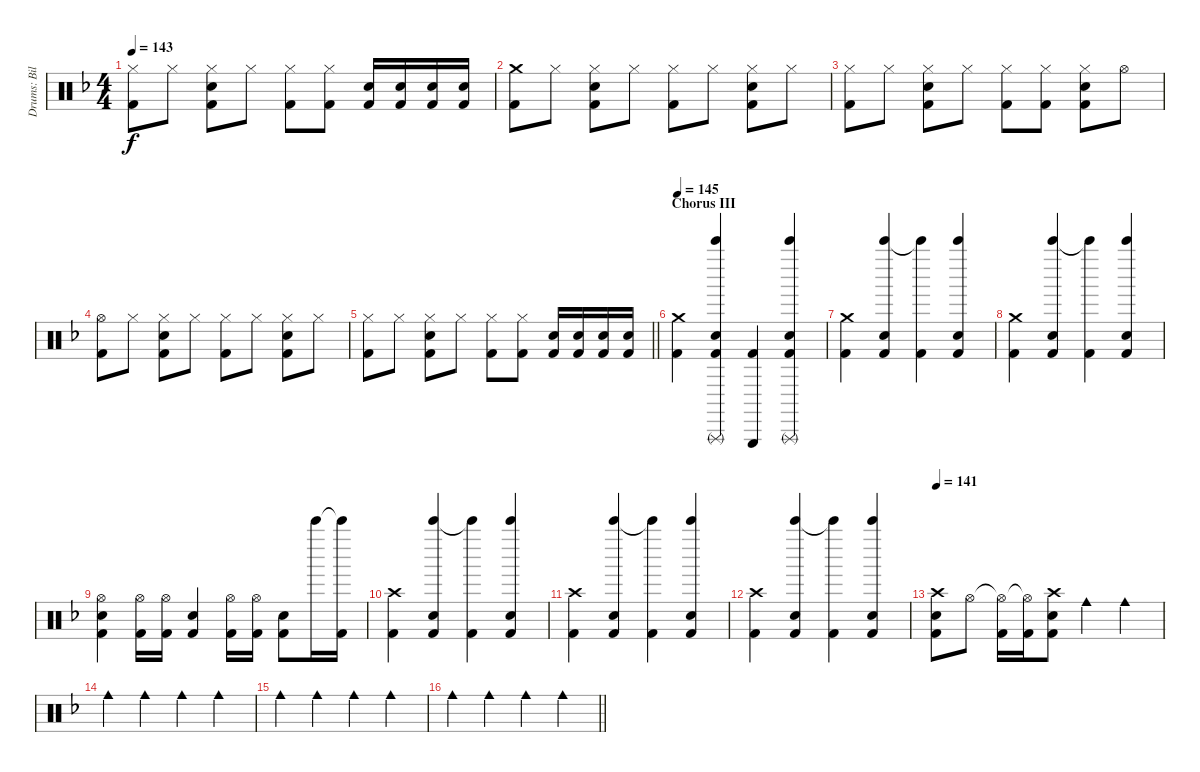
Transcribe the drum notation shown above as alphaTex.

\track ("Drums: Bill" "Drums: Bil") {instrument percussion}
\staff {score}
\articulation defaults
\ts (4 4)
\tempo 143
\clef neutral
\ks f
("Hi-Hat (closed)" "Kick (hit) 2").8{dy f} "Hi-Hat (closed)".8 ("Hi-Hat (closed)" "Snare (hit) 2" "Kick (hit) 2").8 "Hi-Hat (closed)".8 ("Hi-Hat (closed)" "Kick (hit) 2").8 ("Hi-Hat (closed)" "Kick (hit) 2").8 ("Snare (hit) 2" "Kick (hit) 2").16 ("Snare (hit) 2" "Kick (hit) 2").16 ("Snare (hit) 2" "Kick (hit) 2").16 ("Snare (hit) 2" "Kick (hit) 2").16 |
("Crash medium (hit)" "Kick (hit) 2").8 "Hi-Hat (closed)".8 ("Hi-Hat (closed)" "Snare (hit) 2" "Kick (hit) 2").8 "Hi-Hat (closed)".8 ("Hi-Hat (closed)" "Kick (hit) 2").8 "Hi-Hat (closed)".8 ("Hi-Hat (closed)" "Snare (hit) 2" "Kick (hit) 2").8 "Hi-Hat (closed)".8 |
("Hi-Hat (closed)" "Kick (hit) 2").8 "Hi-Hat (closed)".8 ("Hi-Hat (closed)" "Snare (hit) 2" "Kick (hit) 2").8 "Hi-Hat (closed)".8 ("Hi-Hat (closed)" "Kick (hit) 2").8 ("Hi-Hat (closed)" "Kick (hit) 2").8 ("Hi-Hat (closed)" "Snare (hit) 2" "Kick (hit) 2").8 "Hi-Hat (open)".8 |
("Hi-Hat (open)" "Kick (hit) 2").8 "Hi-Hat (closed)".8 ("Hi-Hat (closed)" "Snare (hit) 2" "Kick (hit) 2").8 "Hi-Hat (closed)".8 ("Hi-Hat (closed)" "Kick (hit) 2").8 "Hi-Hat (closed)".8 ("Hi-Hat (closed)" "Snare (hit) 2" "Kick (hit) 2").8 "Hi-Hat (closed)".8 |
\barLineRight lightlight
("Hi-Hat (closed)" "Kick (hit) 2").8 "Hi-Hat (closed)".8 ("Hi-Hat (closed)" "Snare (hit) 2" "Kick (hit) 2").8 "Hi-Hat (closed)".8 ("Hi-Hat (closed)" "Kick (hit) 2").8 ("Hi-Hat (closed)" "Kick (hit) 2").8 ("Snare (hit) 2" "Kick (hit) 2").16 ("Snare (hit) 2" "Kick (hit) 2").16 ("Snare (hit) 2" "Kick (hit) 2").16 ("Snare (hit) 2" "Kick (hit) 2").16 |
\section ("" "Chorus III")
\tempo 145
("Crash medium (hit)" "Kick (hit) 2").4 ("Triangle (rnute)" "Bell Tree (hit)" "Electric Snare (hit)" "Kick (hit) 2").4 ("Triangle (hit)" "Kick (hit) 2").4 ("Triangle (rnute)" "Bell Tree (hit)" "Electric Snare (hit)" "Kick (hit) 2").4 |
("Crash medium (hit)" "Kick (hit) 2").4 ("Bell Tree (hit)" "Electric Snare (hit)" "Kick (hit) 2").4 ("Bell Tree (hit)"{t} "Kick (hit) 2").4 ("Bell Tree (hit)" "Electric Snare (hit)" "Kick (hit) 2").4 |
("Crash medium (hit)" "Kick (hit) 2").4 ("Bell Tree (hit)" "Electric Snare (hit)" "Kick (hit) 2").4 ("Bell Tree (hit)"{t} "Kick (hit) 2").4 ("Bell Tree (hit)" "Electric Snare (hit)" "Kick (hit) 2").4 |
("Hi-Hat (open)" "Snare (hit) 2" "Kick (hit) 2").4 ("Hi-Hat (open)" "Kick (hit) 2").16 ("Hi-Hat (open)" "Kick (hit) 2").16 ("Snare (hit) 2" "Kick (hit) 2").4 ("Hi-Hat (open)" "Kick (hit) 2").16 ("Hi-Hat (open)" "Kick (hit) 2").16 ("Snare (hit) 2" "Kick (hit) 2").8 "Bell Tree (hit)".16 ("Bell Tree (hit)"{t} "Kick (hit) 2").16 |
("Crash high (hit)" "Kick (hit) 2").4 ("Bell Tree (hit)" "Electric Snare (hit)" "Kick (hit) 2").4 ("Bell Tree (hit)"{t} "Kick (hit) 2").4 ("Bell Tree (hit)" "Electric Snare (hit)" "Kick (hit) 2").4 |
("Crash high (hit)" "Kick (hit) 2").4 ("Bell Tree (hit)" "Electric Snare (hit)" "Kick (hit) 2").4 ("Bell Tree (hit)"{t} "Kick (hit) 2").4 ("Bell Tree (hit)" "Electric Snare (hit)" "Kick (hit) 2").4 |
("Crash high (hit)" "Kick (hit) 2").4 ("Bell Tree (hit)" "Electric Snare (hit)" "Kick (hit) 2").4 ("Bell Tree (hit)"{t} "Kick (hit) 2").4 ("Bell Tree (hit)" "Electric Snare (hit)" "Kick (hit) 2").4 |
\tempo 141
("Crash high (hit)" "Snare (hit) 2" "Kick (hit) 2").8 "Hi-Hat (open)".8 ("Hi-Hat (open)"{t} "Kick (hit) 2").16 ("Hi-Hat (open)"{t} "Kick (hit) 2").16 ("Crash high (hit)" "Snare (hit) 2" "Kick (hit) 2").8 "Cowbell medium (hit)".4 "Cowbell medium (hit)".4 |
"Cowbell medium (hit)".4 "Cowbell medium (hit)".4 "Cowbell medium (hit)".4 "Cowbell medium (hit)".4 |
"Cowbell medium (hit)".4 "Cowbell medium (hit)".4 "Cowbell medium (hit)".4 "Cowbell medium (hit)".4 |
\barLineRight lightlight "Cowbell medium (hit)".4 "Cowbell medium (hit)".4 "Cowbell medium (hit)".4 "Cowbell medium (hit)".4
